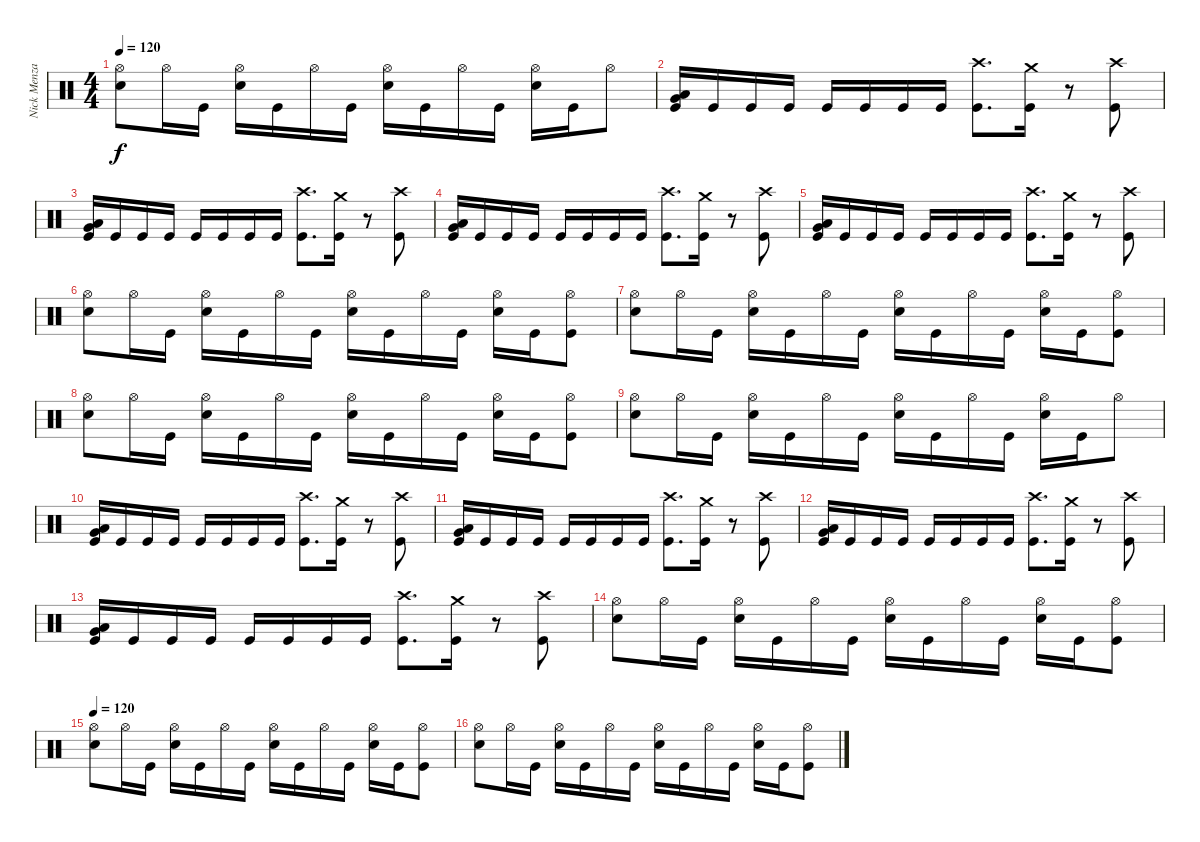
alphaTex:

\track ("Nick Menza" "Nick Menza") {instrument percussion}
\staff {score}
\articulation defaults
\ts (4 4)
\tempo 120
\clef neutral
\ks c
("Hi-Hat (open)" "Snare (hit) 2").8{dy f} "Hi-Hat (open)".16 "Kick (hit)".16 ("Hi-Hat (open)" "Snare (hit) 2").16 "Kick (hit)".16 "Hi-Hat (open)".16 "Kick (hit)".16 ("Hi-Hat (open)" "Snare (hit) 2").16 "Kick (hit)".16 "Hi-Hat (open)".16 "Kick (hit)".16 ("Hi-Hat (open)" "Snare (hit) 2").16 "Kick (hit)".16 "Hi-Hat (open)".8 |
("Very Low Tom (hit)" "Low Floor Tom (hit)" "Kick (hit)").16 "Kick (hit)".16 "Kick (hit)".16 "Kick (hit)".16 "Kick (hit)".16 "Kick (hit)".16 "Kick (hit)".16 "Kick (hit)".16 ("Crash high (hit)" "Kick (hit)").8{d} ("Crash medium (hit)" "Kick (hit)").16 r.8 ("Crash high (hit)" "Kick (hit)").8 |
("Very Low Tom (hit)" "Low Floor Tom (hit)" "Kick (hit)").16 "Kick (hit)".16 "Kick (hit)".16 "Kick (hit)".16 "Kick (hit)".16 "Kick (hit)".16 "Kick (hit)".16 "Kick (hit)".16 ("Crash high (hit)" "Kick (hit)").8{d} ("Crash medium (hit)" "Kick (hit)").16 r.8 ("Crash high (hit)" "Kick (hit)").8 |
("Very Low Tom (hit)" "Low Floor Tom (hit)" "Kick (hit)").16 "Kick (hit)".16 "Kick (hit)".16 "Kick (hit)".16 "Kick (hit)".16 "Kick (hit)".16 "Kick (hit)".16 "Kick (hit)".16 ("Crash high (hit)" "Kick (hit)").8{d} ("Crash medium (hit)" "Kick (hit)").16 r.8 ("Crash high (hit)" "Kick (hit)").8 |
("Very Low Tom (hit)" "Low Floor Tom (hit)" "Kick (hit)").16 "Kick (hit)".16 "Kick (hit)".16 "Kick (hit)".16 "Kick (hit)".16 "Kick (hit)".16 "Kick (hit)".16 "Kick (hit)".16 ("Crash high (hit)" "Kick (hit)").8{d} ("Crash medium (hit)" "Kick (hit)").16 r.8 ("Crash high (hit)" "Kick (hit)").8 |
("Hi-Hat (open)" "Snare (hit) 2").8 "Hi-Hat (open)".16 "Kick (hit)".16 ("Hi-Hat (open)" "Snare (hit) 2").16 "Kick (hit)".16 "Hi-Hat (open)".16 "Kick (hit)".16 ("Hi-Hat (open)" "Snare (hit) 2").16 "Kick (hit)".16 "Hi-Hat (open)".16 "Kick (hit)".16 ("Hi-Hat (open)" "Snare (hit) 2").16 "Kick (hit)".16 ("Hi-Hat (open)" "Kick (hit)").8 |
("Hi-Hat (open)" "Snare (hit) 2").8 "Hi-Hat (open)".16 "Kick (hit)".16 ("Hi-Hat (open)" "Snare (hit) 2").16 "Kick (hit)".16 "Hi-Hat (open)".16 "Kick (hit)".16 ("Hi-Hat (open)" "Snare (hit) 2").16 "Kick (hit)".16 "Hi-Hat (open)".16 "Kick (hit)".16 ("Hi-Hat (open)" "Snare (hit) 2").16 "Kick (hit)".16 ("Hi-Hat (open)" "Kick (hit)").8 |
("Hi-Hat (open)" "Snare (hit) 2").8 "Hi-Hat (open)".16 "Kick (hit)".16 ("Hi-Hat (open)" "Snare (hit) 2").16 "Kick (hit)".16 "Hi-Hat (open)".16 "Kick (hit)".16 ("Hi-Hat (open)" "Snare (hit) 2").16 "Kick (hit)".16 "Hi-Hat (open)".16 "Kick (hit)".16 ("Hi-Hat (open)" "Snare (hit) 2").16 "Kick (hit)".16 ("Hi-Hat (open)" "Kick (hit)").8 |
("Hi-Hat (open)" "Snare (hit) 2").8 "Hi-Hat (open)".16 "Kick (hit)".16 ("Hi-Hat (open)" "Snare (hit) 2").16 "Kick (hit)".16 "Hi-Hat (open)".16 "Kick (hit)".16 ("Hi-Hat (open)" "Snare (hit) 2").16 "Kick (hit)".16 "Hi-Hat (open)".16 "Kick (hit)".16 ("Hi-Hat (open)" "Snare (hit) 2").16 "Kick (hit)".16 "Hi-Hat (open)".8 |
("Very Low Tom (hit)" "Low Floor Tom (hit)" "Kick (hit)").16 "Kick (hit)".16 "Kick (hit)".16 "Kick (hit)".16 "Kick (hit)".16 "Kick (hit)".16 "Kick (hit)".16 "Kick (hit)".16 ("Crash high (hit)" "Kick (hit)").8{d} ("Crash medium (hit)" "Kick (hit)").16 r.8 ("Crash high (hit)" "Kick (hit)").8 |
("Very Low Tom (hit)" "Low Floor Tom (hit)" "Kick (hit)").16 "Kick (hit)".16 "Kick (hit)".16 "Kick (hit)".16 "Kick (hit)".16 "Kick (hit)".16 "Kick (hit)".16 "Kick (hit)".16 ("Crash high (hit)" "Kick (hit)").8{d} ("Crash medium (hit)" "Kick (hit)").16 r.8 ("Crash high (hit)" "Kick (hit)").8 |
("Very Low Tom (hit)" "Low Floor Tom (hit)" "Kick (hit)").16 "Kick (hit)".16 "Kick (hit)".16 "Kick (hit)".16 "Kick (hit)".16 "Kick (hit)".16 "Kick (hit)".16 "Kick (hit)".16 ("Crash high (hit)" "Kick (hit)").8{d} ("Crash medium (hit)" "Kick (hit)").16 r.8 ("Crash high (hit)" "Kick (hit)").8 |
("Very Low Tom (hit)" "Low Floor Tom (hit)" "Kick (hit)").16 "Kick (hit)".16 "Kick (hit)".16 "Kick (hit)".16 "Kick (hit)".16 "Kick (hit)".16 "Kick (hit)".16 "Kick (hit)".16 ("Crash high (hit)" "Kick (hit)").8{d} ("Crash medium (hit)" "Kick (hit)").16 r.8 ("Crash high (hit)" "Kick (hit)").8 |
("Hi-Hat (open)" "Snare (hit) 2").8 "Hi-Hat (open)".16 "Kick (hit)".16 ("Hi-Hat (open)" "Snare (hit) 2").16 "Kick (hit)".16 "Hi-Hat (open)".16 "Kick (hit)".16 ("Hi-Hat (open)" "Snare (hit) 2").16 "Kick (hit)".16 "Hi-Hat (open)".16 "Kick (hit)".16 ("Hi-Hat (open)" "Snare (hit) 2").16 "Kick (hit)".16 ("Hi-Hat (open)" "Kick (hit)").8 |
\tempo 120
("Hi-Hat (open)" "Snare (hit) 2").8 "Hi-Hat (open)".16 "Kick (hit)".16 ("Hi-Hat (open)" "Snare (hit) 2").16 "Kick (hit)".16 "Hi-Hat (open)".16 "Kick (hit)".16 ("Hi-Hat (open)" "Snare (hit) 2").16 "Kick (hit)".16 "Hi-Hat (open)".16 "Kick (hit)".16 ("Hi-Hat (open)" "Snare (hit) 2").16 "Kick (hit)".16 ("Hi-Hat (open)" "Kick (hit)").8 |
("Hi-Hat (open)" "Snare (hit) 2").8 "Hi-Hat (open)".16 "Kick (hit)".16 ("Hi-Hat (open)" "Snare (hit) 2").16 "Kick (hit)".16 "Hi-Hat (open)".16 "Kick (hit)".16 ("Hi-Hat (open)" "Snare (hit) 2").16 "Kick (hit)".16 "Hi-Hat (open)".16 "Kick (hit)".16 ("Hi-Hat (open)" "Snare (hit) 2").16 "Kick (hit)".16 ("Hi-Hat (open)" "Kick (hit)").8
